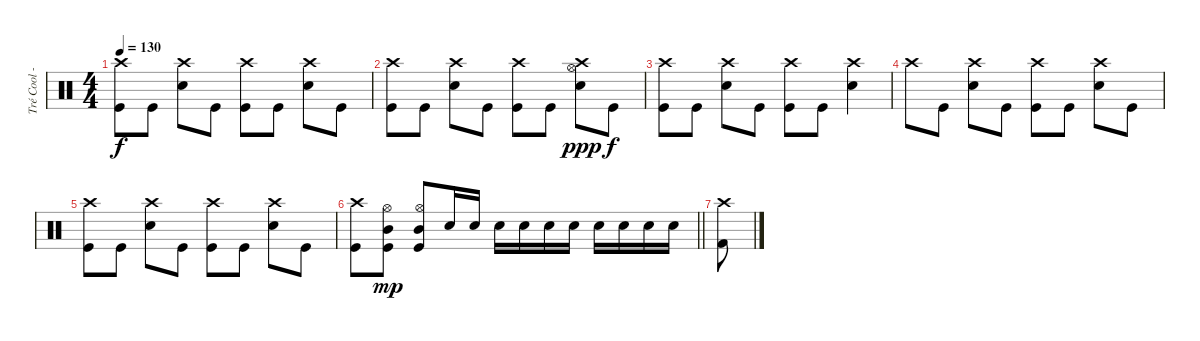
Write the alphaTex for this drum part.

\track ("Tré Cool - Drums" "Tré Cool -") {instrument percussion}
\staff {score}
\articulation defaults
\ts (4 4)
\tempo 130
\clef neutral
\ks c
("Kick (hit)" "Crash high (hit)").8{dy f} "Kick (hit)".8 ("Snare (hit) 2" "Crash high (hit)").8 "Kick (hit)".8 ("Kick (hit)" "Crash high (hit)").8 "Kick (hit)".8 ("Snare (hit) 2" "Crash high (hit)").8 "Kick (hit)".8 |
("Kick (hit)" "Crash high (hit)").8 "Kick (hit)".8 ("Snare (hit) 2" "Crash high (hit)").8 "Kick (hit)".8 ("Kick (hit)" "Crash high (hit)").8 "Kick (hit)".8 ("Snare (hit) 2" "Crash high (hit)" "Hi-Hat (open)").8{dy ppp} "Kick (hit)".8{dy f} |
("Kick (hit)" "Crash high (hit)").8 "Kick (hit)".8 ("Snare (hit) 2" "Crash high (hit)").8 "Kick (hit)".8 ("Kick (hit)" "Crash high (hit)").8 "Kick (hit)".8 ("Snare (hit) 2" "Crash high (hit)").4 |
"Crash high (hit)".8 "Kick (hit)".8 ("Snare (hit) 2" "Crash high (hit)").8 "Kick (hit)".8 ("Kick (hit)" "Crash high (hit)").8 "Kick (hit)".8 ("Snare (hit) 2" "Crash high (hit)").8 "Kick (hit)".8 |
("Kick (hit)" "Crash high (hit)").8 "Kick (hit)".8 ("Snare (hit) 2" "Crash high (hit)").8 "Kick (hit)".8 ("Kick (hit)" "Crash high (hit)").8 "Kick (hit)".8 ("Snare (hit) 2" "Crash high (hit)").8 "Kick (hit)".8 |
\barLineRight lightlight
("Kick (hit)" "Crash high (hit)").8 ("Hi-Hat (open)" "Mid Tom (hit)" "Kick (hit)").8{dy mp} ("Hi-Hat (open)" "Mid Tom (hit)" "Kick (hit)").8 "Snare (hit) 2".16 "Snare (hit) 2".16 "Snare (hit) 2".16 "Snare (hit) 2".16 "Snare (hit) 2".16 "Snare (hit) 2".16 "Snare (hit) 2".16 "Snare (hit) 2".16 "Snare (hit) 2".16 "Snare (hit) 2".16 |
("Crash high (hit)" "Kick (hit) 2").8
